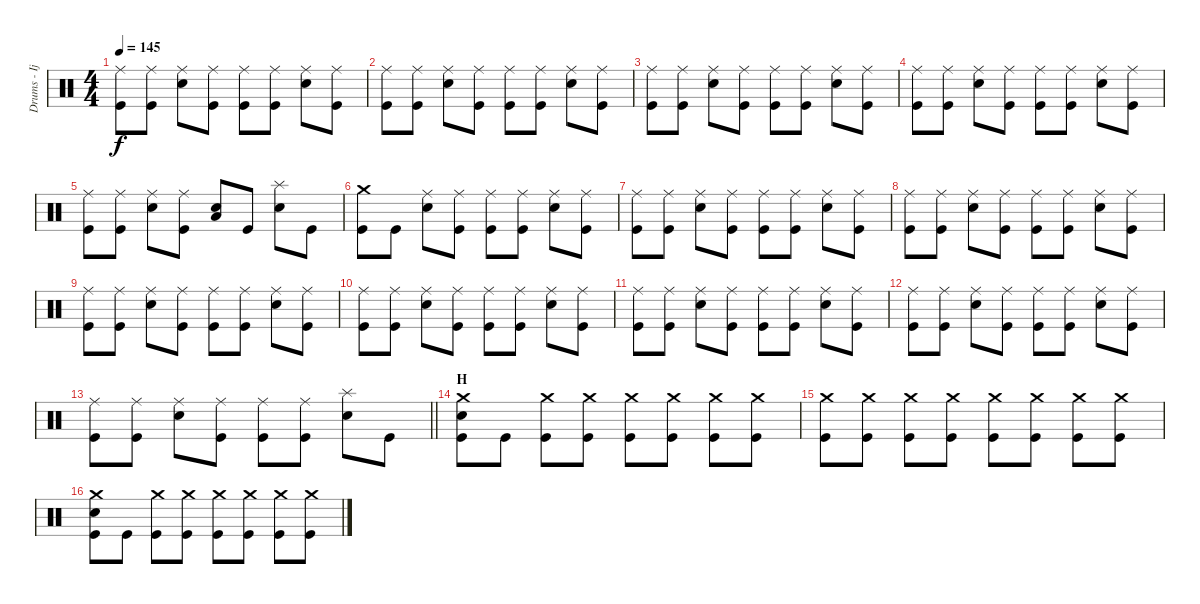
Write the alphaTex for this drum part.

\track ("Drums - Ijichi" "Drums - Ij") {instrument percussion}
\staff {score}
\articulation defaults
\ts (4 4)
\tempo 145
\clef neutral
\ks c
("Ride (middle)" "Kick (hit)").8{dy f} ("Ride (middle)" "Kick (hit)").8 ("Ride (middle)" "Electric Snare (hit)").8 ("Ride (middle)" "Kick (hit)").8 ("Ride (middle)" "Kick (hit)").8 ("Ride (middle)" "Kick (hit)").8 ("Ride (middle)" "Electric Snare (hit)").8 ("Ride (middle)" "Kick (hit)").8 |
("Ride (middle)" "Kick (hit)").8 ("Ride (middle)" "Kick (hit)").8 ("Ride (middle)" "Electric Snare (hit)").8 ("Ride (middle)" "Kick (hit)").8 ("Ride (middle)" "Kick (hit)").8 ("Ride (middle)" "Kick (hit)").8 ("Ride (middle)" "Electric Snare (hit)").8 ("Ride (middle)" "Kick (hit)").8 |
("Ride (middle)" "Kick (hit)").8 ("Ride (middle)" "Kick (hit)").8 ("Ride (middle)" "Electric Snare (hit)").8 ("Ride (middle)" "Kick (hit)").8 ("Ride (middle)" "Kick (hit)").8 ("Ride (middle)" "Kick (hit)").8 ("Ride (middle)" "Electric Snare (hit)").8 ("Ride (middle)" "Kick (hit)").8 |
("Ride (middle)" "Kick (hit)").8 ("Ride (middle)" "Kick (hit)").8 ("Ride (middle)" "Electric Snare (hit)").8 ("Ride (middle)" "Kick (hit)").8 ("Ride (middle)" "Kick (hit)").8 ("Ride (middle)" "Kick (hit)").8 ("Ride (middle)" "Electric Snare (hit)").8 ("Ride (middle)" "Kick (hit)").8 |
("Ride (middle)" "Kick (hit)").8 ("Ride (middle)" "Kick (hit)").8 ("Ride (middle)" "Electric Snare (hit)").8 ("Ride (middle)" "Kick (hit)").8 ("Electric Snare (hit)" "Low Tom (hit)").8 "Kick (hit)".8 ("Splash (hit)" "Electric Snare (hit)").8 "Kick (hit)".8 |
("Crash medium (hit)" "Kick (hit)").8 "Kick (hit)".8 ("Ride (middle)" "Electric Snare (hit)").8 ("Ride (middle)" "Kick (hit)").8 ("Ride (middle)" "Kick (hit)").8 ("Ride (middle)" "Kick (hit)").8 ("Ride (middle)" "Electric Snare (hit)").8 ("Ride (middle)" "Kick (hit)").8 |
("Ride (middle)" "Kick (hit)").8 ("Ride (middle)" "Kick (hit)").8 ("Ride (middle)" "Electric Snare (hit)").8 ("Ride (middle)" "Kick (hit)").8 ("Ride (middle)" "Kick (hit)").8 ("Ride (middle)" "Kick (hit)").8 ("Ride (middle)" "Electric Snare (hit)").8 ("Ride (middle)" "Kick (hit)").8 |
("Ride (middle)" "Kick (hit)").8 ("Ride (middle)" "Kick (hit)").8 ("Ride (middle)" "Electric Snare (hit)").8 ("Ride (middle)" "Kick (hit)").8 ("Ride (middle)" "Kick (hit)").8 ("Ride (middle)" "Kick (hit)").8 ("Ride (middle)" "Electric Snare (hit)").8 ("Ride (middle)" "Kick (hit)").8 |
("Ride (middle)" "Kick (hit)").8 ("Ride (middle)" "Kick (hit)").8 ("Ride (middle)" "Electric Snare (hit)").8 ("Ride (middle)" "Kick (hit)").8 ("Ride (middle)" "Kick (hit)").8 ("Ride (middle)" "Kick (hit)").8 ("Ride (middle)" "Electric Snare (hit)").8 ("Ride (middle)" "Kick (hit)").8 |
("Ride (middle)" "Kick (hit)").8 ("Ride (middle)" "Kick (hit)").8 ("Ride (middle)" "Electric Snare (hit)").8 ("Ride (middle)" "Kick (hit)").8 ("Ride (middle)" "Kick (hit)").8 ("Ride (middle)" "Kick (hit)").8 ("Ride (middle)" "Electric Snare (hit)").8 ("Ride (middle)" "Kick (hit)").8 |
("Ride (middle)" "Kick (hit)").8 ("Ride (middle)" "Kick (hit)").8 ("Ride (middle)" "Electric Snare (hit)").8 ("Ride (middle)" "Kick (hit)").8 ("Ride (middle)" "Kick (hit)").8 ("Ride (middle)" "Kick (hit)").8 ("Ride (middle)" "Electric Snare (hit)").8 ("Ride (middle)" "Kick (hit)").8 |
("Ride (middle)" "Kick (hit)").8 ("Ride (middle)" "Kick (hit)").8 ("Ride (middle)" "Electric Snare (hit)").8 ("Ride (middle)" "Kick (hit)").8 ("Ride (middle)" "Kick (hit)").8 ("Ride (middle)" "Kick (hit)").8 ("Ride (middle)" "Electric Snare (hit)").8 ("Ride (middle)" "Kick (hit)").8 |
\barLineRight lightlight
("Ride (middle)" "Kick (hit)").8 ("Ride (middle)" "Kick (hit)").8 ("Ride (middle)" "Electric Snare (hit)").8 ("Ride (middle)" "Kick (hit)").8 ("Ride (middle)" "Kick (hit)").8 ("Ride (middle)" "Kick (hit)").8 ("Splash (hit)" "Electric Snare (hit)").8 "Kick (hit)".8 |
\section ("" "H")
("Crash medium (hit)" "Electric Snare (hit)" "Kick (hit)").8 "Kick (hit)".8 ("Crash medium (hit)" "Kick (hit)").8 ("Crash medium (hit)" "Kick (hit)").8 ("Crash medium (hit)" "Kick (hit)").8 ("Crash medium (hit)" "Kick (hit)").8 ("Crash medium (hit)" "Kick (hit)").8 ("Crash medium (hit)" "Kick (hit)").8 |
("Crash medium (hit)" "Kick (hit)").8 ("Crash medium (hit)" "Kick (hit)").8 ("Crash medium (hit)" "Kick (hit)").8 ("Crash medium (hit)" "Kick (hit)").8 ("Crash medium (hit)" "Kick (hit)").8 ("Crash medium (hit)" "Kick (hit)").8 ("Crash medium (hit)" "Kick (hit)").8 ("Crash medium (hit)" "Kick (hit)").8 |
("Crash medium (hit)" "Electric Snare (hit)" "Kick (hit)").8 "Kick (hit)".8 ("Crash medium (hit)" "Kick (hit)").8 ("Crash medium (hit)" "Kick (hit)").8 ("Crash medium (hit)" "Kick (hit)").8 ("Crash medium (hit)" "Kick (hit)").8 ("Crash medium (hit)" "Kick (hit)").8 ("Crash medium (hit)" "Kick (hit)").8
